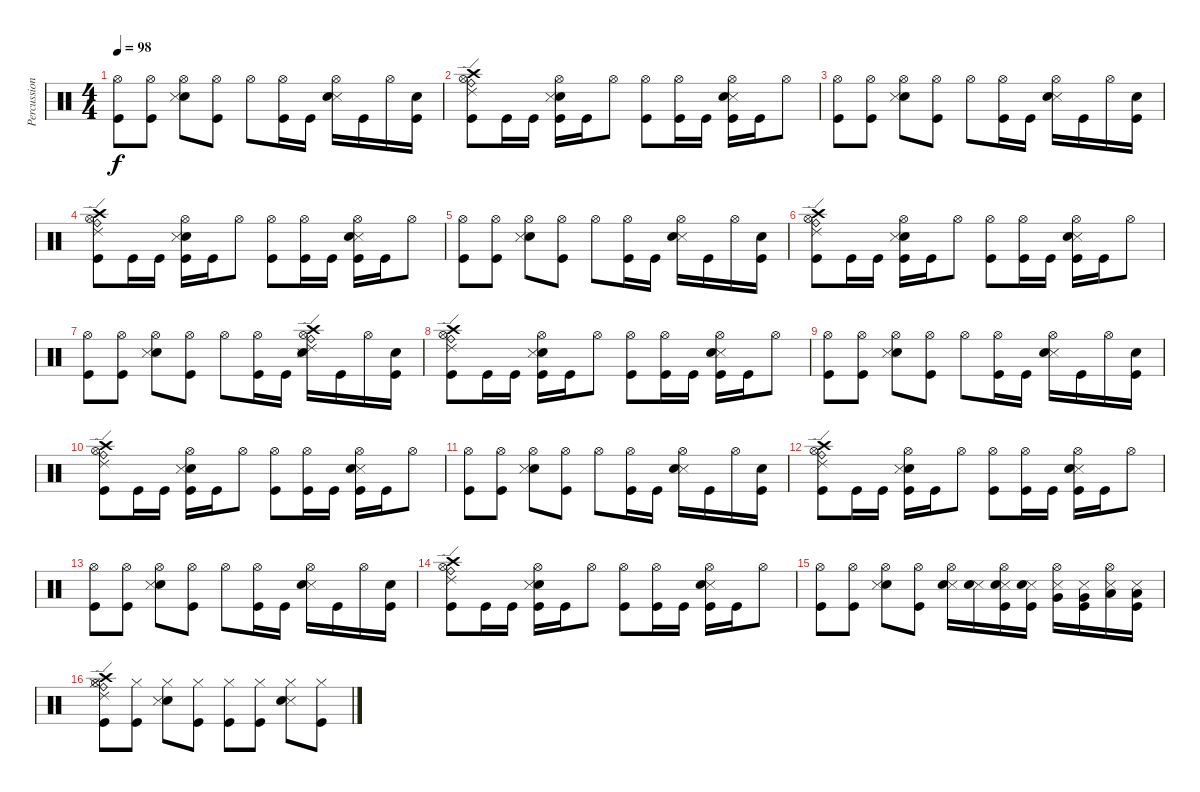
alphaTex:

\track ("Percussion" "Percussion") {instrument percussion}
\staff {score}
\articulation defaults
\ts (4 4)
\tempo 98
\clef neutral
\ks c
("Kick (hit)" "Hi-Hat (open)").8{dy f} ("Kick (hit)" "Hi-Hat (open)").8 ("Electric Snare (hit)" "Snare (side stick) 3" "Hi-Hat (open)").8 ("Kick (hit)" "Hi-Hat (open)").8 "Hi-Hat (open)".8 ("Kick (hit)" "Hi-Hat (open)").16 "Kick (hit)".16 ("Snare (side stick) 3" "Electric Snare (hit)" "Hi-Hat (open)").16 "Kick (hit)".16 "Hi-Hat (open)".16 ("Kick (hit)" "Electric Snare (hit)").16 |
("Crash high (hit)" "Ride (edge) 2" "Kick (hit)" "Hi-Hat (open)" "Ride (bell)").8 "Kick (hit)".16 "Kick (hit)".16 ("Electric Snare (hit)" "Snare (side stick) 3" "Kick (hit)" "Hi-Hat (open)").16 "Kick (hit)".16 "Hi-Hat (open)".8 ("Kick (hit)" "Hi-Hat (open)").8 ("Kick (hit)" "Hi-Hat (open)").16 "Kick (hit)".16 ("Snare (side stick) 3" "Electric Snare (hit)" "Kick (hit)" "Hi-Hat (open)").16 "Kick (hit)".16 "Hi-Hat (open)".8 |
("Kick (hit)" "Hi-Hat (open)").8 ("Kick (hit)" "Hi-Hat (open)").8 ("Electric Snare (hit)" "Snare (side stick) 3" "Hi-Hat (open)").8 ("Kick (hit)" "Hi-Hat (open)").8 "Hi-Hat (open)".8 ("Kick (hit)" "Hi-Hat (open)").16 "Kick (hit)".16 ("Snare (side stick) 3" "Electric Snare (hit)" "Hi-Hat (open)").16 "Kick (hit)".16 "Hi-Hat (open)".16 ("Kick (hit)" "Electric Snare (hit)").16 |
("Crash high (hit)" "Ride (edge) 2" "Kick (hit)" "Hi-Hat (open)" "Ride (bell)").8 "Kick (hit)".16 "Kick (hit)".16 ("Electric Snare (hit)" "Snare (side stick) 3" "Kick (hit)" "Hi-Hat (open)").16 "Kick (hit)".16 "Hi-Hat (open)".8 ("Kick (hit)" "Hi-Hat (open)").8 ("Kick (hit)" "Hi-Hat (open)").16 "Kick (hit)".16 ("Snare (side stick) 3" "Electric Snare (hit)" "Kick (hit)" "Hi-Hat (open)").16 "Kick (hit)".16 "Hi-Hat (open)".8 |
("Kick (hit)" "Hi-Hat (open)").8 ("Kick (hit)" "Hi-Hat (open)").8 ("Electric Snare (hit)" "Snare (side stick) 3" "Hi-Hat (open)").8 ("Kick (hit)" "Hi-Hat (open)").8 "Hi-Hat (open)".8 ("Kick (hit)" "Hi-Hat (open)").16 "Kick (hit)".16 ("Snare (side stick) 3" "Electric Snare (hit)" "Hi-Hat (open)").16 "Kick (hit)".16 "Hi-Hat (open)".16 ("Kick (hit)" "Electric Snare (hit)").16 |
("Crash high (hit)" "Hi-Hat (open)" "Ride (edge) 2" "Kick (hit)" "Ride (bell)").8 "Kick (hit)".16 "Kick (hit)".16 ("Electric Snare (hit)" "Snare (side stick) 3" "Kick (hit)" "Hi-Hat (open)").16 "Kick (hit)".16 "Hi-Hat (open)".8 ("Kick (hit)" "Hi-Hat (open)").8 ("Kick (hit)" "Hi-Hat (open)").16 "Kick (hit)".16 ("Snare (side stick) 3" "Electric Snare (hit)" "Kick (hit)" "Hi-Hat (open)").16 "Kick (hit)".16 "Hi-Hat (open)".8 |
("Kick (hit)" "Hi-Hat (open)").8 ("Kick (hit)" "Hi-Hat (open)").8 ("Electric Snare (hit)" "Snare (side stick) 3" "Hi-Hat (open)").8 ("Kick (hit)" "Hi-Hat (open)").8 "Hi-Hat (open)".8 ("Kick (hit)" "Hi-Hat (open)").16 "Kick (hit)".16 ("Crash high (hit)" "Ride (bell)" "Ride (edge) 2" "Hi-Hat (open)" "Snare (side stick) 3" "Electric Snare (hit)").16 "Kick (hit)".16 "Hi-Hat (open)".16 ("Kick (hit)" "Electric Snare (hit)").16 |
("Hi-Hat (open)" "Crash high (hit)" "Ride (bell)" "Ride (edge) 2" "Kick (hit)").8 "Kick (hit)".16 "Kick (hit)".16 ("Electric Snare (hit)" "Snare (side stick) 3" "Kick (hit)" "Hi-Hat (open)").16 "Kick (hit)".16 "Hi-Hat (open)".8 ("Kick (hit)" "Hi-Hat (open)").8 ("Kick (hit)" "Hi-Hat (open)").16 "Kick (hit)".16 ("Snare (side stick) 3" "Electric Snare (hit)" "Kick (hit)" "Hi-Hat (open)").16 "Kick (hit)".16 "Hi-Hat (open)".8 |
("Kick (hit)" "Hi-Hat (open)").8 ("Kick (hit)" "Hi-Hat (open)").8 ("Electric Snare (hit)" "Snare (side stick) 3" "Hi-Hat (open)").8 ("Kick (hit)" "Hi-Hat (open)").8 "Hi-Hat (open)".8 ("Kick (hit)" "Hi-Hat (open)").16 "Kick (hit)".16 ("Snare (side stick) 3" "Electric Snare (hit)" "Hi-Hat (open)").16 "Kick (hit)".16 "Hi-Hat (open)".16 ("Kick (hit)" "Electric Snare (hit)").16 |
("Crash high (hit)" "Ride (edge) 2" "Kick (hit)" "Hi-Hat (open)" "Ride (bell)").8 "Kick (hit)".16 "Kick (hit)".16 ("Electric Snare (hit)" "Snare (side stick) 3" "Kick (hit)" "Hi-Hat (open)").16 "Kick (hit)".16 "Hi-Hat (open)".8 ("Kick (hit)" "Hi-Hat (open)").8 ("Kick (hit)" "Hi-Hat (open)").16 "Kick (hit)".16 ("Snare (side stick) 3" "Electric Snare (hit)" "Kick (hit)" "Hi-Hat (open)").16 "Kick (hit)".16 "Hi-Hat (open)".8 |
("Kick (hit)" "Hi-Hat (open)").8 ("Kick (hit)" "Hi-Hat (open)").8 ("Electric Snare (hit)" "Snare (side stick) 3" "Hi-Hat (open)").8 ("Kick (hit)" "Hi-Hat (open)").8 "Hi-Hat (open)".8 ("Kick (hit)" "Hi-Hat (open)").16 "Kick (hit)".16 ("Snare (side stick) 3" "Electric Snare (hit)" "Hi-Hat (open)").16 "Kick (hit)".16 "Hi-Hat (open)".16 ("Kick (hit)" "Electric Snare (hit)").16 |
("Crash high (hit)" "Ride (edge) 2" "Kick (hit)" "Hi-Hat (open)" "Ride (bell)").8 "Kick (hit)".16 "Kick (hit)".16 ("Electric Snare (hit)" "Snare (side stick) 3" "Kick (hit)" "Hi-Hat (open)").16 "Kick (hit)".16 "Hi-Hat (open)".8 ("Kick (hit)" "Hi-Hat (open)").8 ("Kick (hit)" "Hi-Hat (open)").16 "Kick (hit)".16 ("Snare (side stick) 3" "Electric Snare (hit)" "Kick (hit)" "Hi-Hat (open)").16 "Kick (hit)".16 "Hi-Hat (open)".8 |
("Kick (hit)" "Hi-Hat (open)").8 ("Kick (hit)" "Hi-Hat (open)").8 ("Electric Snare (hit)" "Snare (side stick) 3" "Hi-Hat (open)").8 ("Kick (hit)" "Hi-Hat (open)").8 "Hi-Hat (open)".8 ("Kick (hit)" "Hi-Hat (open)").16 "Kick (hit)".16 ("Snare (side stick) 3" "Electric Snare (hit)" "Hi-Hat (open)").16 "Kick (hit)".16 "Hi-Hat (open)".16 ("Kick (hit)" "Electric Snare (hit)").16 |
("Crash high (hit)" "Ride (edge) 2" "Kick (hit)" "Hi-Hat (open)" "Ride (bell)").8 "Kick (hit)".16 "Kick (hit)".16 ("Electric Snare (hit)" "Snare (side stick) 3" "Kick (hit)" "Hi-Hat (open)").16 "Kick (hit)".16 "Hi-Hat (open)".8 ("Kick (hit)" "Hi-Hat (open)").8 ("Kick (hit)" "Hi-Hat (open)").16 "Kick (hit)".16 ("Snare (side stick) 3" "Electric Snare (hit)" "Kick (hit)" "Hi-Hat (open)").16 "Kick (hit)".16 "Hi-Hat (open)".8 |
("Kick (hit)" "Hi-Hat (open)").8 ("Kick (hit)" "Hi-Hat (open)").8 ("Electric Snare (hit)" "Snare (side stick) 3" "Hi-Hat (open)").8 ("Kick (hit)" "Hi-Hat (open)").8 ("Hi-Hat (open)" "Snare (side stick) 3" "Electric Snare (hit)").16 ("Snare (side stick) 3" "Electric Snare (hit)").16 ("Snare (side stick) 3" "Electric Snare (hit)" "Kick (hit)" "Hi-Hat (open)").16 ("Snare (side stick) 3" "Electric Snare (hit)" "Kick (hit)").16 ("Very Low Tom (hit)" "Snare (side stick) 3" "Hi-Hat (open)").16 ("Very Low Tom (hit)" "Snare (side stick) 3" "Kick (hit)").16 ("Low Floor Tom (hit)" "Snare (side stick) 3" "Hi-Hat (open)").16 ("Low Floor Tom (hit)" "Snare (side stick) 3" "Kick (hit)").16 |
("Kick (hit)" "Hi-Hat (closed)" "Hi-Hat (open)" "Crash high (hit)" "Ride (bell)" "Ride (edge) 2").8 ("Hi-Hat (closed)" "Kick (hit)").8 ("Hi-Hat (closed)" "Electric Snare (hit)" "Snare (side stick) 3").8 ("Hi-Hat (closed)" "Kick (hit)").8 ("Hi-Hat (closed)" "Kick (hit)").8 ("Kick (hit)" "Hi-Hat (closed)").8 ("Hi-Hat (closed)" "Snare (side stick) 3" "Electric Snare (hit)").8 ("Hi-Hat (closed)" "Kick (hit)").8
